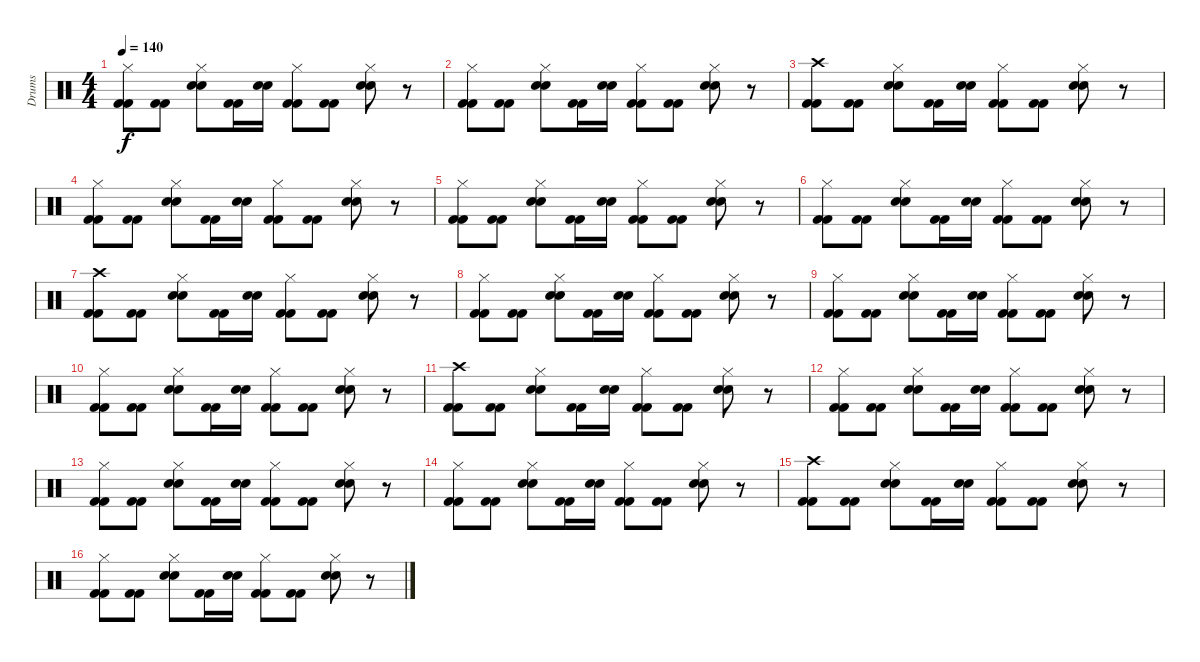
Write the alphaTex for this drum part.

\track ("Drums" "Drums") {instrument percussion}
\staff {score}
\articulation defaults
\ts (4 4)
\tempo 140
\clef neutral
\ks c
("Hi-Hat (closed)" "Kick (hit) 2" "Kick (hit) 2").8{dy f} ("Kick (hit) 2" "Kick (hit) 2").8 ("Hi-Hat (closed)" "Hand Clap (hit)" "Snare (hit) 2").8 ("Kick (hit) 2" "Kick (hit) 2").16 ("Hand Clap (hit)" "Snare (hit) 2").16 ("Hi-Hat (closed)" "Kick (hit) 2" "Kick (hit) 2").8 ("Kick (hit) 2" "Kick (hit) 2").8 ("Hi-Hat (closed)" "Hand Clap (hit)" "Snare (hit) 2").8 r.8 |
("Hi-Hat (closed)" "Kick (hit) 2" "Kick (hit) 2").8 ("Kick (hit) 2" "Kick (hit) 2").8 ("Hi-Hat (closed)" "Hand Clap (hit)" "Snare (hit) 2").8 ("Kick (hit) 2" "Kick (hit) 2").16 ("Hand Clap (hit)" "Snare (hit) 2").16 ("Hi-Hat (closed)" "Kick (hit) 2" "Kick (hit) 2").8 ("Kick (hit) 2" "Kick (hit) 2").8 ("Hi-Hat (closed)" "Hand Clap (hit)" "Snare (hit) 2").8 r.8 |
("Crash high (hit)" "Kick (hit) 2" "Kick (hit) 2").8{volume 11} ("Kick (hit) 2" "Kick (hit) 2").8 ("Hi-Hat (closed)" "Hand Clap (hit)" "Snare (hit) 2").8 ("Kick (hit) 2" "Kick (hit) 2").16 ("Hand Clap (hit)" "Snare (hit) 2").16 ("Hi-Hat (closed)" "Kick (hit) 2" "Kick (hit) 2").8 ("Kick (hit) 2" "Kick (hit) 2").8 ("Hi-Hat (closed)" "Hand Clap (hit)" "Snare (hit) 2").8 r.8 |
("Hi-Hat (closed)" "Kick (hit) 2" "Kick (hit) 2").8 ("Kick (hit) 2" "Kick (hit) 2").8 ("Hi-Hat (closed)" "Hand Clap (hit)" "Snare (hit) 2").8 ("Kick (hit) 2" "Kick (hit) 2").16 ("Hand Clap (hit)" "Snare (hit) 2").16 ("Hi-Hat (closed)" "Kick (hit) 2" "Kick (hit) 2").8 ("Kick (hit) 2" "Kick (hit) 2").8 ("Hi-Hat (closed)" "Hand Clap (hit)" "Snare (hit) 2").8 r.8 |
("Hi-Hat (closed)" "Kick (hit) 2" "Kick (hit) 2").8 ("Kick (hit) 2" "Kick (hit) 2").8 ("Hi-Hat (closed)" "Hand Clap (hit)" "Snare (hit) 2").8 ("Kick (hit) 2" "Kick (hit) 2").16 ("Hand Clap (hit)" "Snare (hit) 2").16 ("Hi-Hat (closed)" "Kick (hit) 2" "Kick (hit) 2").8 ("Kick (hit) 2" "Kick (hit) 2").8 ("Hi-Hat (closed)" "Hand Clap (hit)" "Snare (hit) 2").8 r.8 |
("Hi-Hat (closed)" "Kick (hit) 2" "Kick (hit) 2").8 ("Kick (hit) 2" "Kick (hit) 2").8 ("Hi-Hat (closed)" "Hand Clap (hit)" "Snare (hit) 2").8 ("Kick (hit) 2" "Kick (hit) 2").16 ("Hand Clap (hit)" "Snare (hit) 2").16 ("Hi-Hat (closed)" "Kick (hit) 2" "Kick (hit) 2").8 ("Kick (hit) 2" "Kick (hit) 2").8 ("Hi-Hat (closed)" "Hand Clap (hit)" "Snare (hit) 2").8 r.8 |
("Crash high (hit)" "Kick (hit) 2" "Kick (hit) 2").8 ("Kick (hit) 2" "Kick (hit) 2").8 ("Hi-Hat (closed)" "Hand Clap (hit)" "Snare (hit) 2").8 ("Kick (hit) 2" "Kick (hit) 2").16 ("Hand Clap (hit)" "Snare (hit) 2").16 ("Hi-Hat (closed)" "Kick (hit) 2" "Kick (hit) 2").8 ("Kick (hit) 2" "Kick (hit) 2").8 ("Hi-Hat (closed)" "Hand Clap (hit)" "Snare (hit) 2").8 r.8 |
("Hi-Hat (closed)" "Kick (hit) 2" "Kick (hit) 2").8 ("Kick (hit) 2" "Kick (hit) 2").8 ("Hi-Hat (closed)" "Hand Clap (hit)" "Snare (hit) 2").8 ("Kick (hit) 2" "Kick (hit) 2").16 ("Hand Clap (hit)" "Snare (hit) 2").16 ("Hi-Hat (closed)" "Kick (hit) 2" "Kick (hit) 2").8 ("Kick (hit) 2" "Kick (hit) 2").8 ("Hi-Hat (closed)" "Hand Clap (hit)" "Snare (hit) 2").8 r.8 |
("Hi-Hat (closed)" "Kick (hit) 2" "Kick (hit) 2").8 ("Kick (hit) 2" "Kick (hit) 2").8 ("Hi-Hat (closed)" "Hand Clap (hit)" "Snare (hit) 2").8 ("Kick (hit) 2" "Kick (hit) 2").16 ("Hand Clap (hit)" "Snare (hit) 2").16 ("Hi-Hat (closed)" "Kick (hit) 2" "Kick (hit) 2").8 ("Kick (hit) 2" "Kick (hit) 2").8 ("Hi-Hat (closed)" "Hand Clap (hit)" "Snare (hit) 2").8 r.8 |
("Hi-Hat (closed)" "Kick (hit) 2" "Kick (hit) 2").8 ("Kick (hit) 2" "Kick (hit) 2").8 ("Hi-Hat (closed)" "Hand Clap (hit)" "Snare (hit) 2").8 ("Kick (hit) 2" "Kick (hit) 2").16 ("Hand Clap (hit)" "Snare (hit) 2").16 ("Hi-Hat (closed)" "Kick (hit) 2" "Kick (hit) 2").8 ("Kick (hit) 2" "Kick (hit) 2").8 ("Hi-Hat (closed)" "Hand Clap (hit)" "Snare (hit) 2").8 r.8 |
("Crash high (hit)" "Kick (hit) 2" "Kick (hit) 2").8{volume 11} ("Kick (hit) 2" "Kick (hit) 2").8 ("Hi-Hat (closed)" "Hand Clap (hit)" "Snare (hit) 2").8 ("Kick (hit) 2" "Kick (hit) 2").16 ("Hand Clap (hit)" "Snare (hit) 2").16 ("Hi-Hat (closed)" "Kick (hit) 2" "Kick (hit) 2").8 ("Kick (hit) 2" "Kick (hit) 2").8 ("Hi-Hat (closed)" "Hand Clap (hit)" "Snare (hit) 2").8 r.8 |
("Hi-Hat (closed)" "Kick (hit) 2" "Kick (hit) 2").8 ("Kick (hit) 2" "Kick (hit) 2").8 ("Hi-Hat (closed)" "Hand Clap (hit)" "Snare (hit) 2").8 ("Kick (hit) 2" "Kick (hit) 2").16 ("Hand Clap (hit)" "Snare (hit) 2").16 ("Hi-Hat (closed)" "Kick (hit) 2" "Kick (hit) 2").8 ("Kick (hit) 2" "Kick (hit) 2").8 ("Hi-Hat (closed)" "Hand Clap (hit)" "Snare (hit) 2").8 r.8 |
("Hi-Hat (closed)" "Kick (hit) 2" "Kick (hit) 2").8 ("Kick (hit) 2" "Kick (hit) 2").8 ("Hi-Hat (closed)" "Hand Clap (hit)" "Snare (hit) 2").8 ("Kick (hit) 2" "Kick (hit) 2").16 ("Hand Clap (hit)" "Snare (hit) 2").16 ("Hi-Hat (closed)" "Kick (hit) 2" "Kick (hit) 2").8 ("Kick (hit) 2" "Kick (hit) 2").8 ("Hi-Hat (closed)" "Hand Clap (hit)" "Snare (hit) 2").8 r.8 |
("Hi-Hat (closed)" "Kick (hit) 2" "Kick (hit) 2").8 ("Kick (hit) 2" "Kick (hit) 2").8 ("Hi-Hat (closed)" "Hand Clap (hit)" "Snare (hit) 2").8 ("Kick (hit) 2" "Kick (hit) 2").16 ("Hand Clap (hit)" "Snare (hit) 2").16 ("Hi-Hat (closed)" "Kick (hit) 2" "Kick (hit) 2").8 ("Kick (hit) 2" "Kick (hit) 2").8 ("Hi-Hat (closed)" "Hand Clap (hit)" "Snare (hit) 2").8 r.8 |
("Crash high (hit)" "Kick (hit) 2" "Kick (hit) 2").8 ("Kick (hit) 2" "Kick (hit) 2").8 ("Hi-Hat (closed)" "Hand Clap (hit)" "Snare (hit) 2").8 ("Kick (hit) 2" "Kick (hit) 2").16 ("Hand Clap (hit)" "Snare (hit) 2").16 ("Hi-Hat (closed)" "Kick (hit) 2" "Kick (hit) 2").8 ("Kick (hit) 2" "Kick (hit) 2").8 ("Hi-Hat (closed)" "Hand Clap (hit)" "Snare (hit) 2").8 r.8 |
("Hi-Hat (closed)" "Kick (hit) 2" "Kick (hit) 2").8 ("Kick (hit) 2" "Kick (hit) 2").8 ("Hi-Hat (closed)" "Hand Clap (hit)" "Snare (hit) 2").8 ("Kick (hit) 2" "Kick (hit) 2").16 ("Hand Clap (hit)" "Snare (hit) 2").16 ("Hi-Hat (closed)" "Kick (hit) 2" "Kick (hit) 2").8 ("Kick (hit) 2" "Kick (hit) 2").8 ("Hi-Hat (closed)" "Hand Clap (hit)" "Snare (hit) 2").8 r.8
